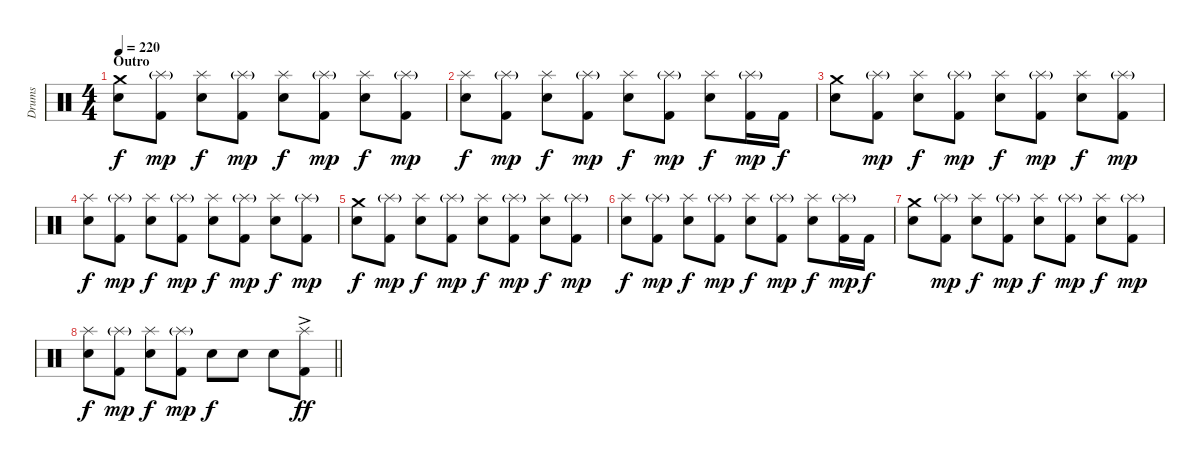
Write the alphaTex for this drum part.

\track ("Drums" "Drums") {instrument percussion}
\staff {score}
\articulation defaults
\ts (4 4)
\section ("" "Outro")
\tempo 220
\clef neutral
\ks c
("Crash medium (hit)" "Electric Snare (hit)").8{dy f} ("Splash (hit)"{g} "Kick (hit) 2").8{dy mp} ("Splash (hit)" "Electric Snare (hit)").8{dy f} ("Splash (hit)"{g} "Kick (hit) 2").8{dy mp} ("Splash (hit)" "Electric Snare (hit)").8{dy f} ("Splash (hit)"{g} "Kick (hit) 2").8{dy mp} ("Splash (hit)" "Electric Snare (hit)").8{dy f} ("Splash (hit)"{g} "Kick (hit) 2").8{dy mp} |
("Splash (hit)" "Electric Snare (hit)").8{dy f} ("Splash (hit)"{g} "Kick (hit) 2").8{dy mp} ("Splash (hit)" "Electric Snare (hit)").8{dy f} ("Splash (hit)"{g} "Kick (hit) 2").8{dy mp} ("Splash (hit)" "Electric Snare (hit)").8{dy f} ("Splash (hit)"{g} "Kick (hit) 2").8{dy mp} ("Splash (hit)" "Electric Snare (hit)").8{dy f} ("Splash (hit)"{g} "Kick (hit) 2").16{dy mp} "Kick (hit) 2".16{dy f} |
("Crash medium (hit)" "Electric Snare (hit)").8 ("Splash (hit)"{g} "Kick (hit) 2").8{dy mp} ("Splash (hit)" "Electric Snare (hit)").8{dy f} ("Splash (hit)"{g} "Kick (hit) 2").8{dy mp} ("Splash (hit)" "Electric Snare (hit)").8{dy f} ("Splash (hit)"{g} "Kick (hit) 2").8{dy mp} ("Splash (hit)" "Electric Snare (hit)").8{dy f} ("Splash (hit)"{g} "Kick (hit) 2").8{dy mp} |
("Splash (hit)" "Electric Snare (hit)").8{dy f} ("Splash (hit)"{g} "Kick (hit) 2").8{dy mp} ("Splash (hit)" "Electric Snare (hit)").8{dy f} ("Splash (hit)"{g} "Kick (hit) 2").8{dy mp} ("Splash (hit)" "Electric Snare (hit)").8{dy f} ("Splash (hit)"{g} "Kick (hit) 2").8{dy mp} ("Splash (hit)" "Electric Snare (hit)").8{dy f} ("Splash (hit)"{g} "Kick (hit) 2").8{dy mp} |
("Crash medium (hit)" "Electric Snare (hit)").8{dy f} ("Splash (hit)"{g} "Kick (hit) 2").8{dy mp} ("Splash (hit)" "Electric Snare (hit)").8{dy f} ("Splash (hit)"{g} "Kick (hit) 2").8{dy mp} ("Splash (hit)" "Electric Snare (hit)").8{dy f} ("Splash (hit)"{g} "Kick (hit) 2").8{dy mp} ("Splash (hit)" "Electric Snare (hit)").8{dy f} ("Splash (hit)"{g} "Kick (hit) 2").8{dy mp} |
("Splash (hit)" "Electric Snare (hit)").8{dy f} ("Splash (hit)"{g} "Kick (hit) 2").8{dy mp} ("Splash (hit)" "Electric Snare (hit)").8{dy f} ("Splash (hit)"{g} "Kick (hit) 2").8{dy mp} ("Splash (hit)" "Electric Snare (hit)").8{dy f} ("Splash (hit)"{g} "Kick (hit) 2").8{dy mp} ("Splash (hit)" "Electric Snare (hit)").8{dy f} ("Splash (hit)"{g} "Kick (hit) 2").16{dy mp} "Kick (hit) 2".16{dy f} |
("Crash medium (hit)" "Electric Snare (hit)").8 ("Splash (hit)"{g} "Kick (hit) 2").8{dy mp} ("Splash (hit)" "Electric Snare (hit)").8{dy f} ("Splash (hit)"{g} "Kick (hit) 2").8{dy mp} ("Splash (hit)" "Electric Snare (hit)").8{dy f} ("Splash (hit)"{g} "Kick (hit) 2").8{dy mp} ("Splash (hit)" "Electric Snare (hit)").8{dy f} ("Splash (hit)"{g} "Kick (hit) 2").8{dy mp} |
\barLineRight lightlight
("Splash (hit)" "Electric Snare (hit)").8{dy f} ("Splash (hit)"{g} "Kick (hit) 2").8{dy mp} ("Splash (hit)" "Electric Snare (hit)").8{dy f} ("Splash (hit)"{g} "Kick (hit) 2").8{dy mp} "Electric Snare (hit)".8{dy f} "Electric Snare (hit)".8 "Electric Snare (hit)".8 ("Splash (hit)"{ac} "Kick (hit) 2").8{dy ff}
